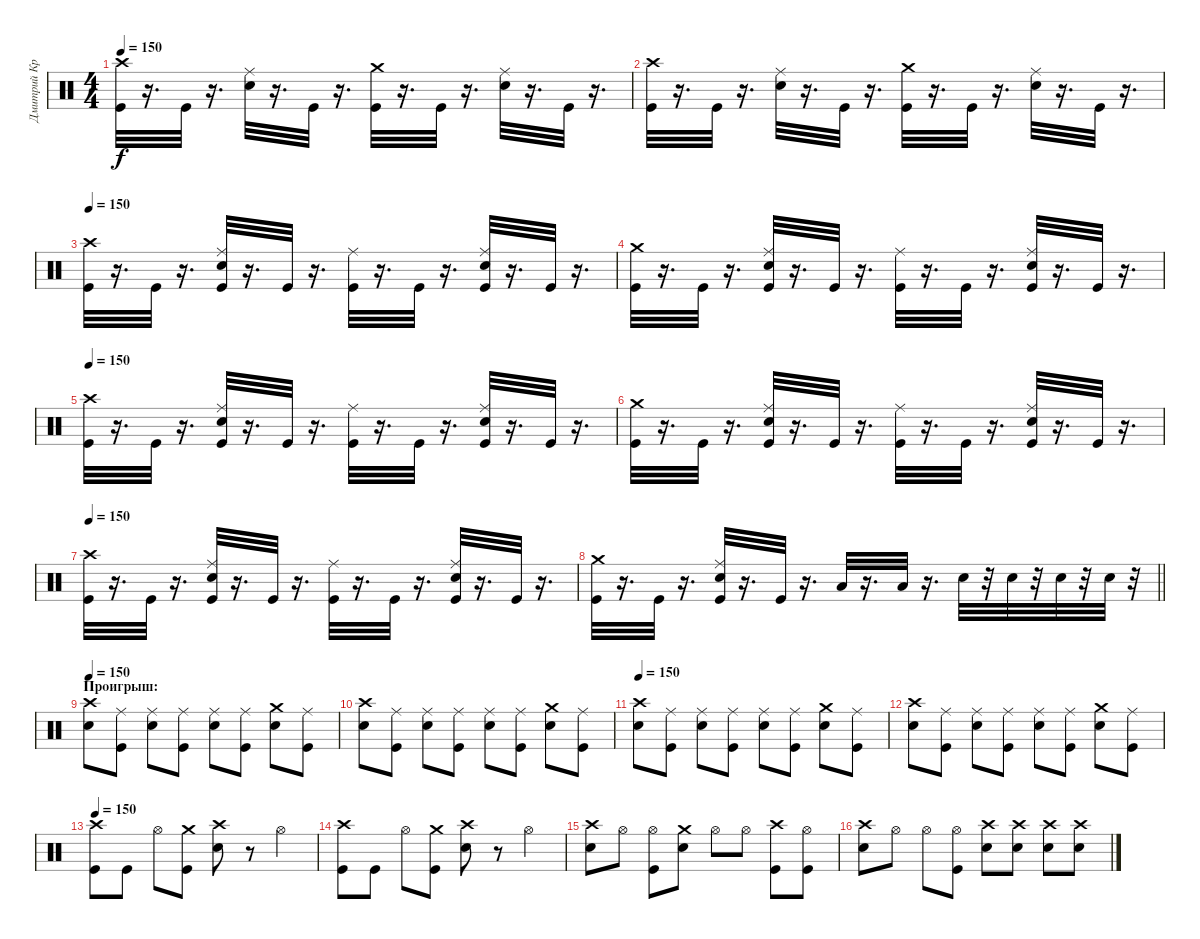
\track ("Дмитрий Кривенков" "Дмитрий Кр") {instrument percussion}
\staff {score}
\articulation defaults
\ts (4 4)
\tempo 150
\clef neutral
\ks c
("Kick (hit)" "Crash high (hit)").32{dy f} r.16{d} "Kick (hit)".32 r.16{d} ("Ride (middle)" "Electric Snare (hit)").32 r.16{d} "Kick (hit)".32 r.16{d} ("Kick (hit)" "Crash medium (hit)").32 r.16{d} "Kick (hit)".32 r.16{d} ("Ride (middle)" "Electric Snare (hit)").32 r.16{d} "Kick (hit)".32 r.16{d} |
("Crash high (hit)" "Kick (hit)").32 r.16{d} "Kick (hit)".32 r.16{d} ("Ride (middle)" "Electric Snare (hit)").32 r.16{d} "Kick (hit)".32 r.16{d} ("Crash medium (hit)" "Kick (hit)").32 r.16{d} "Kick (hit)".32 r.16{d} ("Ride (middle)" "Electric Snare (hit)").32 r.16{d} "Kick (hit)".32 r.16{d} |
\tempo 150
("Crash high (hit)" "Kick (hit)").32 r.16{d} "Kick (hit)".32 r.16{d} ("Ride (middle)" "Electric Snare (hit)" "Kick (hit)").32 r.16{d} "Kick (hit)".32 r.16{d} ("Ride (middle)" "Kick (hit)").32 r.16{d} "Kick (hit)".32 r.16{d} ("Ride (middle)" "Electric Snare (hit)" "Kick (hit)").32 r.16{d} "Kick (hit)".32 r.16{d} |
("Crash medium (hit)" "Kick (hit)").32 r.16{d} "Kick (hit)".32 r.16{d} ("Ride (middle)" "Electric Snare (hit)" "Kick (hit)").32 r.16{d} "Kick (hit)".32 r.16{d} ("Ride (middle)" "Kick (hit)").32 r.16{d} "Kick (hit)".32 r.16{d} ("Ride (middle)" "Electric Snare (hit)" "Kick (hit)").32 r.16{d} "Kick (hit)".32 r.16{d} |
\tempo 150
("Crash high (hit)" "Kick (hit)").32 r.16{d} "Kick (hit)".32 r.16{d} ("Ride (middle)" "Kick (hit)" "Electric Snare (hit)").32 r.16{d} "Kick (hit)".32 r.16{d} ("Ride (middle)" "Kick (hit)").32 r.16{d} "Kick (hit)".32 r.16{d} ("Ride (middle)" "Electric Snare (hit)" "Kick (hit)").32 r.16{d} "Kick (hit)".32 r.16{d} |
("Kick (hit)" "Crash medium (hit)").32 r.16{d} "Kick (hit)".32 r.16{d} ("Kick (hit)" "Electric Snare (hit)" "Ride (middle)").32 r.16{d} "Kick (hit)".32 r.16{d} ("Kick (hit)" "Ride (middle)").32 r.16{d} "Kick (hit)".32 r.16{d} ("Kick (hit)" "Electric Snare (hit)" "Ride (middle)").32 r.16{d} "Kick (hit)".32 r.16{d} |
\tempo 150
("Kick (hit)" "Crash high (hit)").32 r.16{d} "Kick (hit)".32 r.16{d} ("Ride (middle)" "Kick (hit)" "Electric Snare (hit)").32 r.16{d} "Kick (hit)".32 r.16{d} ("Ride (middle)" "Kick (hit)").32 r.16{d} "Kick (hit)".32 r.16{d} ("Ride (middle)" "Kick (hit)" "Electric Snare (hit)").32 r.16{d} "Kick (hit)".32 r.16{d} |
\barLineRight lightlight
("Crash medium (hit)" "Kick (hit)").32 r.16{d} "Kick (hit)".32 r.16{d} ("Ride (middle)" "Electric Snare (hit)" "Kick (hit)").32 r.16{d} "Kick (hit)".32 r.16{d} "Low Tom (hit)".32 r.16{d} "Low Tom (hit)".32 r.16{d} "Electric Snare (hit)".32 r.32 "Electric Snare (hit)".32 r.32 "Electric Snare (hit)".32 r.32 "Electric Snare (hit)".32 r.32 |
\section ("" "Проигрыш:")
\tempo 150
("Crash high (hit)" "Electric Snare (hit)").8 ("Ride (middle)" "Kick (hit)").8 ("Ride (middle)" "Electric Snare (hit)").8 ("Ride (middle)" "Kick (hit)").8 ("Electric Snare (hit)" "Ride (middle)").8 ("Ride (middle)" "Kick (hit)").8 ("Electric Snare (hit)" "Crash medium (hit)").8 ("Ride (middle)" "Kick (hit)").8 |
("Electric Snare (hit)" "Crash high (hit)").8 ("Ride (middle)" "Kick (hit)").8 ("Ride (middle)" "Electric Snare (hit)").8 ("Kick (hit)" "Ride (middle)").8 ("Ride (middle)" "Electric Snare (hit)").8 ("Kick (hit)" "Ride (middle)").8 ("Crash medium (hit)" "Electric Snare (hit)").8 ("Ride (middle)" "Kick (hit)").8 |
\tempo 150
("Crash high (hit)" "Electric Snare (hit)").8 ("Ride (middle)" "Kick (hit)").8 ("Electric Snare (hit)" "Ride (middle)").8 ("Ride (middle)" "Kick (hit)").8 ("Electric Snare (hit)" "Ride (middle)").8 ("Ride (middle)" "Kick (hit)").8 ("Crash medium (hit)" "Electric Snare (hit)").8 ("Kick (hit)" "Ride (middle)").8 |
("Crash high (hit)" "Electric Snare (hit)").8 ("Kick (hit)" "Ride (middle)").8 ("Electric Snare (hit)" "Ride (middle)").8 ("Kick (hit)" "Ride (middle)").8 ("Ride (middle)" "Electric Snare (hit)").8 ("Ride (middle)" "Kick (hit)").8 ("Crash medium (hit)" "Electric Snare (hit)").8 ("Ride (middle)" "Kick (hit)").8 |
\tempo 150
("Crash high (hit)" "Kick (hit)").8 "Kick (hit)".8 "Hi-Hat (open)".8 ("Kick (hit)" "Crash medium (hit)").8 ("Crash high (hit)" "Electric Snare (hit)").8 r.8 "Hi-Hat (open)".4 |
("Crash high (hit)" "Kick (hit)").8 "Kick (hit)".8 "Hi-Hat (open)".8 ("Crash medium (hit)" "Kick (hit)").8 ("Crash high (hit)" "Electric Snare (hit)").8 r.8 "Hi-Hat (open)".4 |
("Electric Snare (hit)" "Crash high (hit)").8 "Hi-Hat (open)".8 ("Kick (hit)" "Hi-Hat (open)").8 ("Crash medium (hit)" "Electric Snare (hit)").8 "Hi-Hat (open)".8 "Hi-Hat (open)".8 ("Crash high (hit)" "Kick (hit)").8 ("Hi-Hat (open)" "Kick (hit)").8 |
("Electric Snare (hit)" "Crash high (hit)").8 "Hi-Hat (open)".8 "Hi-Hat (open)".8 ("Hi-Hat (open)" "Kick (hit)").8 ("Crash high (hit)" "Electric Snare (hit)").8 ("Crash high (hit)" "Electric Snare (hit)").8 ("Crash high (hit)" "Electric Snare (hit)").8 ("Electric Snare (hit)" "Crash high (hit)").8
